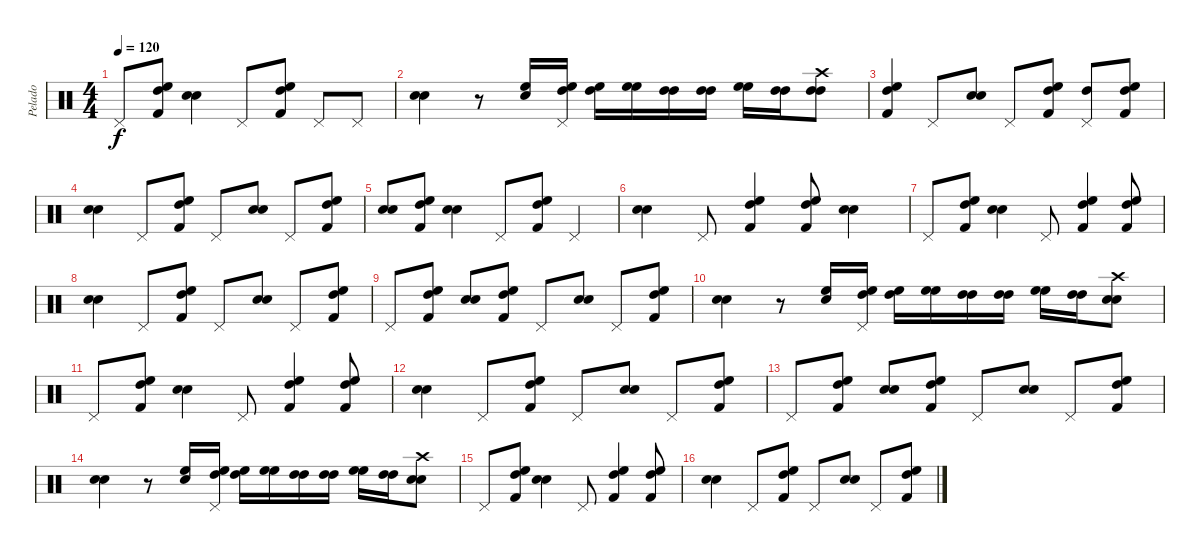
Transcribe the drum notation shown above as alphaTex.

\track ("Pelado" "Pelado") {instrument percussion}
\staff {score}
\articulation defaults
\ts (4 4)
\tempo 120
\clef neutral
\ks c "Pedal Hi-Hat (hit)".8{dy f}
("Kick (hit) 2" "High Floor Tom (hit)" "High Tom (hit)").8 ("Electric Snare (hit)" "Electric Snare (hit)").4 "Pedal Hi-Hat (hit)".8 ("Kick (hit) 2" "High Floor Tom (hit)" "High Tom (hit)").8 "Pedal Hi-Hat (hit)".8 "Pedal Hi-Hat (hit)".8 |
("Electric Snare (hit)" "Electric Snare (hit)").4 r.8 ("High Floor Tom (hit)" "Snare (hit) 2").16 ("Pedal Hi-Hat (hit)" "High Floor Tom (hit)" "High Tom (hit)").16 ("High Floor Tom (hit)" "High Tom (hit)").16 ("High Floor Tom (hit)" "High Floor Tom (hit)").16 ("High Tom (hit)" "High Tom (hit)").16 ("High Tom (hit)" "High Tom (hit)").16 ("High Floor Tom (hit)" "High Floor Tom (hit)").16 ("High Tom (hit)" "High Tom (hit)").16 ("Crash high (hit)" "High Tom (hit)" "High Tom (hit)").8 |
("Kick (hit) 2" "High Floor Tom (hit)" "High Tom (hit)").4 "Pedal Hi-Hat (hit)".8 ("Electric Snare (hit)" "Electric Snare (hit)").8 "Pedal Hi-Hat (hit)".8 ("Kick (hit) 2" "High Floor Tom (hit)" "High Tom (hit)").8 ("Pedal Hi-Hat (hit)" "High Tom (hit)").8 ("Kick (hit) 2" "High Floor Tom (hit)" "High Tom (hit)").8 |
("Electric Snare (hit)" "Electric Snare (hit)").4 "Pedal Hi-Hat (hit)".8 ("Kick (hit) 2" "High Floor Tom (hit)" "High Tom (hit)").8 "Pedal Hi-Hat (hit)".8 ("Electric Snare (hit)" "Electric Snare (hit)").8 "Pedal Hi-Hat (hit)".8 ("Kick (hit) 2" "High Floor Tom (hit)" "High Tom (hit)").8 |
("Electric Snare (hit)" "Electric Snare (hit)").8 ("Kick (hit) 2" "High Floor Tom (hit)" "High Tom (hit)").8 ("Electric Snare (hit)" "Electric Snare (hit)").4 "Pedal Hi-Hat (hit)".8 ("Kick (hit) 2" "High Floor Tom (hit)" "High Tom (hit)").8 "Pedal Hi-Hat (hit)".4 |
("Electric Snare (hit)" "Electric Snare (hit)").4 "Pedal Hi-Hat (hit)".8 ("Kick (hit) 2" "High Floor Tom (hit)" "High Tom (hit)").4 ("Kick (hit) 2" "High Floor Tom (hit)" "High Tom (hit)").8 ("Electric Snare (hit)" "Electric Snare (hit)").4 |
"Pedal Hi-Hat (hit)".8 ("Kick (hit) 2" "High Floor Tom (hit)" "High Tom (hit)").8 ("Electric Snare (hit)" "Electric Snare (hit)").4 "Pedal Hi-Hat (hit)".8 ("Kick (hit) 2" "High Floor Tom (hit)" "High Tom (hit)").4 ("Kick (hit) 2" "High Floor Tom (hit)" "High Tom (hit)").8 |
("Electric Snare (hit)" "Electric Snare (hit)").4 "Pedal Hi-Hat (hit)".8 ("Kick (hit) 2" "High Floor Tom (hit)" "High Tom (hit)").8 "Pedal Hi-Hat (hit)".8 ("Electric Snare (hit)" "Electric Snare (hit)").8 "Pedal Hi-Hat (hit)".8 ("Kick (hit) 2" "High Floor Tom (hit)" "High Tom (hit)").8 |
"Pedal Hi-Hat (hit)".8 ("Kick (hit) 2" "High Floor Tom (hit)" "High Tom (hit)").8 ("Electric Snare (hit)" "Electric Snare (hit)").8 ("Kick (hit) 2" "High Floor Tom (hit)" "High Tom (hit)").8 "Pedal Hi-Hat (hit)".8 ("Electric Snare (hit)" "Electric Snare (hit)").8 "Pedal Hi-Hat (hit)".8 ("Kick (hit) 2" "High Floor Tom (hit)" "High Tom (hit)").8 |
("Electric Snare (hit)" "Electric Snare (hit)").4 r.8 ("High Floor Tom (hit)" "Snare (hit) 2").16 ("Pedal Hi-Hat (hit)" "High Floor Tom (hit)" "High Tom (hit)").16 ("High Floor Tom (hit)" "High Tom (hit)").16 ("High Floor Tom (hit)" "High Floor Tom (hit)").16 ("High Tom (hit)" "High Tom (hit)").16 ("High Tom (hit)" "High Tom (hit)").16 ("High Floor Tom (hit)" "High Floor Tom (hit)").16 ("High Tom (hit)" "High Tom (hit)").16 ("Crash high (hit)" "Electric Snare (hit)" "Electric Snare (hit)").8 |
"Pedal Hi-Hat (hit)".8 ("Kick (hit) 2" "High Floor Tom (hit)" "High Tom (hit)").8 ("Electric Snare (hit)" "Electric Snare (hit)").4 "Pedal Hi-Hat (hit)".8 ("Kick (hit) 2" "High Floor Tom (hit)" "High Tom (hit)").4 ("Kick (hit) 2" "High Floor Tom (hit)" "High Tom (hit)").8 |
("Electric Snare (hit)" "Electric Snare (hit)").4 "Pedal Hi-Hat (hit)".8 ("Kick (hit) 2" "High Floor Tom (hit)" "High Tom (hit)").8 "Pedal Hi-Hat (hit)".8 ("Electric Snare (hit)" "Electric Snare (hit)").8 "Pedal Hi-Hat (hit)".8 ("Kick (hit) 2" "High Floor Tom (hit)" "High Tom (hit)").8 |
"Pedal Hi-Hat (hit)".8 ("Kick (hit) 2" "High Floor Tom (hit)" "High Tom (hit)").8 ("Electric Snare (hit)" "Electric Snare (hit)").8 ("Kick (hit) 2" "High Floor Tom (hit)" "High Tom (hit)").8 "Pedal Hi-Hat (hit)".8 ("Electric Snare (hit)" "Electric Snare (hit)").8 "Pedal Hi-Hat (hit)".8 ("Kick (hit) 2" "High Floor Tom (hit)" "High Tom (hit)").8 |
("Electric Snare (hit)" "Electric Snare (hit)").4 r.8 ("High Floor Tom (hit)" "Snare (hit) 2").16 ("Pedal Hi-Hat (hit)" "High Floor Tom (hit)" "High Tom (hit)").16 ("High Floor Tom (hit)" "High Tom (hit)").16 ("High Floor Tom (hit)" "High Floor Tom (hit)").16 ("High Tom (hit)" "High Tom (hit)").16 ("High Tom (hit)" "High Tom (hit)").16 ("High Floor Tom (hit)" "High Floor Tom (hit)").16 ("High Tom (hit)" "High Tom (hit)").16 ("Crash high (hit)" "Electric Snare (hit)" "Electric Snare (hit)").8 |
"Pedal Hi-Hat (hit)".8 ("Kick (hit) 2" "High Floor Tom (hit)" "High Tom (hit)").8 ("Electric Snare (hit)" "Electric Snare (hit)").4 "Pedal Hi-Hat (hit)".8 ("Kick (hit) 2" "High Floor Tom (hit)" "High Tom (hit)").4 ("Kick (hit) 2" "High Floor Tom (hit)" "High Tom (hit)").8 |
("Electric Snare (hit)" "Electric Snare (hit)").4 "Pedal Hi-Hat (hit)".8 ("Kick (hit) 2" "High Floor Tom (hit)" "High Tom (hit)").8 "Pedal Hi-Hat (hit)".8 ("Electric Snare (hit)" "Electric Snare (hit)").8 "Pedal Hi-Hat (hit)".8 ("Kick (hit) 2" "High Floor Tom (hit)" "High Tom (hit)").8
